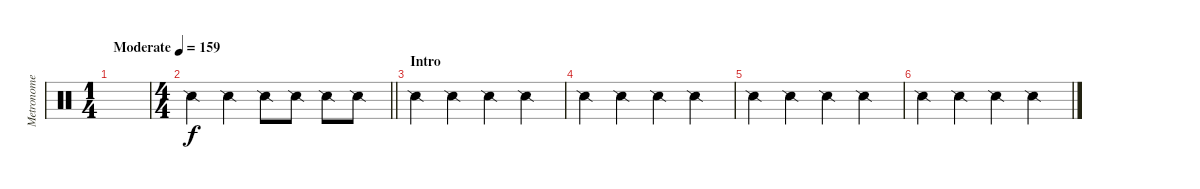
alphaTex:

\track ("Metronome" "Metronome") {instrument percussion}
\staff {score}
\articulation defaults
\ts (1 4)
\tempo (159 "Moderate")
\clef neutral
\ks c
|
\ts (4 4)
\barLineRight lightlight "Snare (side stick) 2".4 "Snare (side stick) 2".4 "Snare (side stick) 2".8 "Snare (side stick) 2".8 "Snare (side stick) 2".8 "Snare (side stick) 2".8
|
\section ("" "Intro")
"Snare (side stick) 2".4 "Snare (side stick) 2".4 "Snare (side stick) 2".4 "Snare (side stick) 2".4 |
"Snare (side stick) 2".4 "Snare (side stick) 2".4 "Snare (side stick) 2".4 "Snare (side stick) 2".4 |
"Snare (side stick) 2".4 "Snare (side stick) 2".4 "Snare (side stick) 2".4 "Snare (side stick) 2".4 |
"Snare (side stick) 2".4 "Snare (side stick) 2".4 "Snare (side stick) 2".4 "Snare (side stick) 2".4
